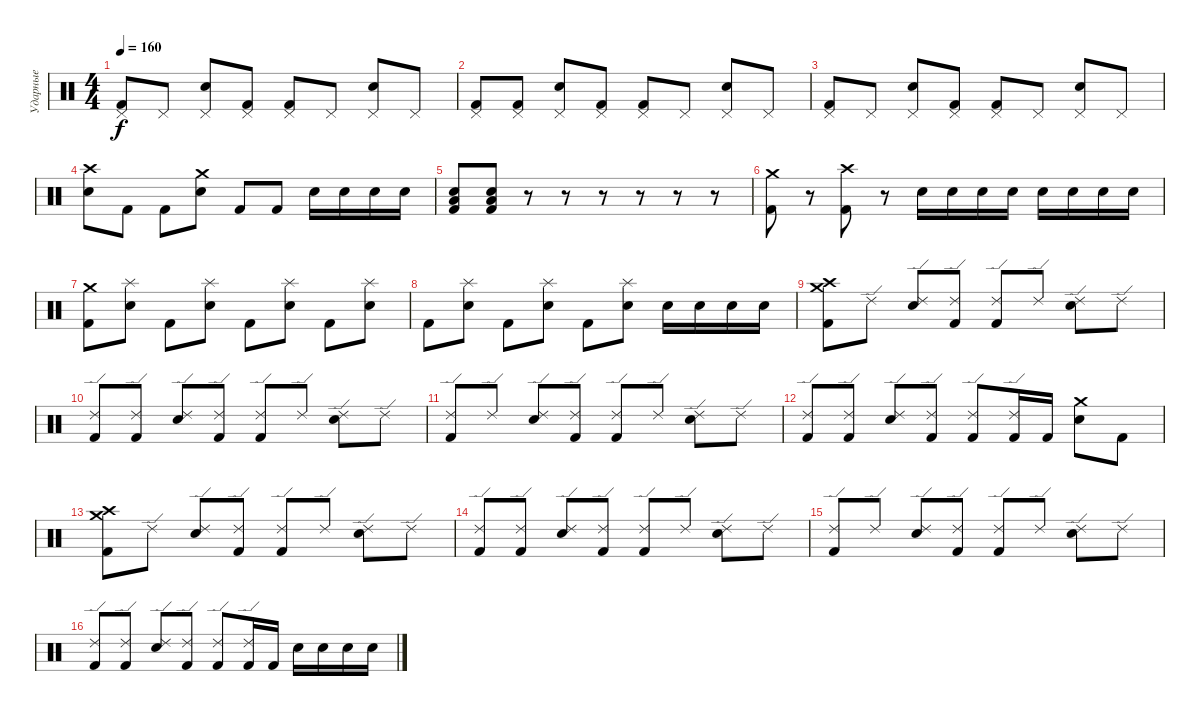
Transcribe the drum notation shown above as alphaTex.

\track ("Ударные" "Ударные") {instrument percussion}
\staff {score}
\articulation defaults
\ts (4 4)
\tempo 160
\clef neutral
\ks c
("Pedal Hi-Hat (hit)" "Kick (hit) 2").8{dy f} "Pedal Hi-Hat (hit)".8 ("Pedal Hi-Hat (hit)" "Electric Snare (hit)").8 ("Pedal Hi-Hat (hit)" "Kick (hit) 2").8 ("Pedal Hi-Hat (hit)" "Kick (hit) 2").8 "Pedal Hi-Hat (hit)".8 ("Pedal Hi-Hat (hit)" "Electric Snare (hit)").8 "Pedal Hi-Hat (hit)".8 |
("Pedal Hi-Hat (hit)" "Kick (hit) 2").8 ("Pedal Hi-Hat (hit)" "Kick (hit) 2").8 ("Pedal Hi-Hat (hit)" "Electric Snare (hit)").8 ("Pedal Hi-Hat (hit)" "Kick (hit) 2").8 ("Pedal Hi-Hat (hit)" "Kick (hit) 2").8 "Pedal Hi-Hat (hit)".8 ("Pedal Hi-Hat (hit)" "Electric Snare (hit)").8 "Pedal Hi-Hat (hit)".8 |
("Pedal Hi-Hat (hit)" "Kick (hit) 2").8 "Pedal Hi-Hat (hit)".8 ("Pedal Hi-Hat (hit)" "Electric Snare (hit)").8 ("Pedal Hi-Hat (hit)" "Kick (hit) 2").8 ("Pedal Hi-Hat (hit)" "Kick (hit) 2").8 "Pedal Hi-Hat (hit)".8 ("Pedal Hi-Hat (hit)" "Electric Snare (hit)").8 "Pedal Hi-Hat (hit)".8 |
("Crash high (hit)" "Electric Snare (hit)").8 "Kick (hit) 2".8 "Kick (hit) 2".8 ("Crash medium (hit)" "Electric Snare (hit)").8 "Kick (hit) 2".8 "Kick (hit) 2".8 "Electric Snare (hit)".16 "Electric Snare (hit)".16 "Electric Snare (hit)".16 "Electric Snare (hit)".16 |
("Kick (hit) 2" "Low Tom (hit)" "Electric Snare (hit)").8 ("Kick (hit) 2" "Low Tom (hit)" "Electric Snare (hit)").8 r.8 r.8 r.8 r.8 r.8 r.8 |
("Crash medium (hit)" "Kick (hit) 2").8 r.8 ("Crash high (hit)" "Kick (hit) 2").8 r.8 "Electric Snare (hit)".16 "Electric Snare (hit)".16 "Electric Snare (hit)".16 "Electric Snare (hit)".16 "Electric Snare (hit)".16 "Electric Snare (hit)".16 "Electric Snare (hit)".16 "Electric Snare (hit)".16 |
("Crash medium (hit)" "Kick (hit) 2").8 ("Splash (hit)" "Electric Snare (hit)").8 "Kick (hit) 2".8 ("Splash (hit)" "Electric Snare (hit)").8 "Kick (hit) 2".8 ("Splash (hit)" "Electric Snare (hit)").8 "Kick (hit) 2".8 ("Splash (hit)" "Electric Snare (hit)").8 |
"Kick (hit) 2".8 ("Splash (hit)" "Electric Snare (hit)").8 "Kick (hit) 2".8 ("Splash (hit)" "Electric Snare (hit)").8 "Kick (hit) 2".8 ("Splash (hit)" "Electric Snare (hit)").8 "Electric Snare (hit)".16 "Electric Snare (hit)".16 "Electric Snare (hit)".16 "Electric Snare (hit)".16 |
("Crash medium (hit)" "Crash high (hit)" "Kick (hit) 2").8 "Ride (edge) 2".8 ("Ride (edge) 2" "Electric Snare (hit)").8 ("Ride (edge) 2" "Kick (hit) 2").8 ("Ride (edge) 2" "Kick (hit) 2").8 "Ride (edge) 2".8 ("Ride (edge) 2" "Electric Snare (hit)").8 "Ride (edge) 2".8 |
("Ride (edge) 2" "Kick (hit) 2").8 ("Ride (edge) 2" "Kick (hit) 2").8 ("Ride (edge) 2" "Electric Snare (hit)").8 ("Ride (edge) 2" "Kick (hit) 2").8 ("Ride (edge) 2" "Kick (hit) 2").8 "Ride (edge) 2".8 ("Ride (edge) 2" "Electric Snare (hit)").8 "Ride (edge) 2".8 |
("Ride (edge) 2" "Kick (hit) 2").8 "Ride (edge) 2".8 ("Ride (edge) 2" "Electric Snare (hit)").8 ("Ride (edge) 2" "Kick (hit) 2").8 ("Ride (edge) 2" "Kick (hit) 2").8 "Ride (edge) 2".8 ("Ride (edge) 2" "Electric Snare (hit)").8 "Ride (edge) 2".8 |
("Ride (edge) 2" "Kick (hit) 2").8 ("Ride (edge) 2" "Kick (hit) 2").8 ("Ride (edge) 2" "Electric Snare (hit)").8 ("Ride (edge) 2" "Kick (hit) 2").8 ("Ride (edge) 2" "Kick (hit) 2").8 ("Ride (edge) 2" "Kick (hit) 2").16 "Kick (hit) 2".16 ("Crash medium (hit)" "Electric Snare (hit)").8 "Kick (hit) 2".8 |
("Crash medium (hit)" "Crash high (hit)" "Kick (hit) 2").8 "Ride (edge) 2".8 ("Ride (edge) 2" "Electric Snare (hit)").8 ("Ride (edge) 2" "Kick (hit) 2").8 ("Ride (edge) 2" "Kick (hit) 2").8 "Ride (edge) 2".8 ("Ride (edge) 2" "Electric Snare (hit)").8 "Ride (edge) 2".8 |
("Ride (edge) 2" "Kick (hit) 2").8 ("Ride (edge) 2" "Kick (hit) 2").8 ("Ride (edge) 2" "Electric Snare (hit)").8 ("Ride (edge) 2" "Kick (hit) 2").8 ("Ride (edge) 2" "Kick (hit) 2").8 "Ride (edge) 2".8 ("Ride (edge) 2" "Electric Snare (hit)").8 "Ride (edge) 2".8 |
("Ride (edge) 2" "Kick (hit) 2").8 "Ride (edge) 2".8 ("Ride (edge) 2" "Electric Snare (hit)").8 ("Ride (edge) 2" "Kick (hit) 2").8 ("Ride (edge) 2" "Kick (hit) 2").8 "Ride (edge) 2".8 ("Ride (edge) 2" "Electric Snare (hit)").8 "Ride (edge) 2".8 |
("Ride (edge) 2" "Kick (hit) 2").8 ("Ride (edge) 2" "Kick (hit) 2").8 ("Ride (edge) 2" "Electric Snare (hit)").8 ("Ride (edge) 2" "Kick (hit) 2").8 ("Ride (edge) 2" "Kick (hit) 2").8 ("Ride (edge) 2" "Kick (hit) 2").16 "Kick (hit) 2".16 "Electric Snare (hit)".16 "Electric Snare (hit)".16 "Electric Snare (hit)".16 "Electric Snare (hit)".16
